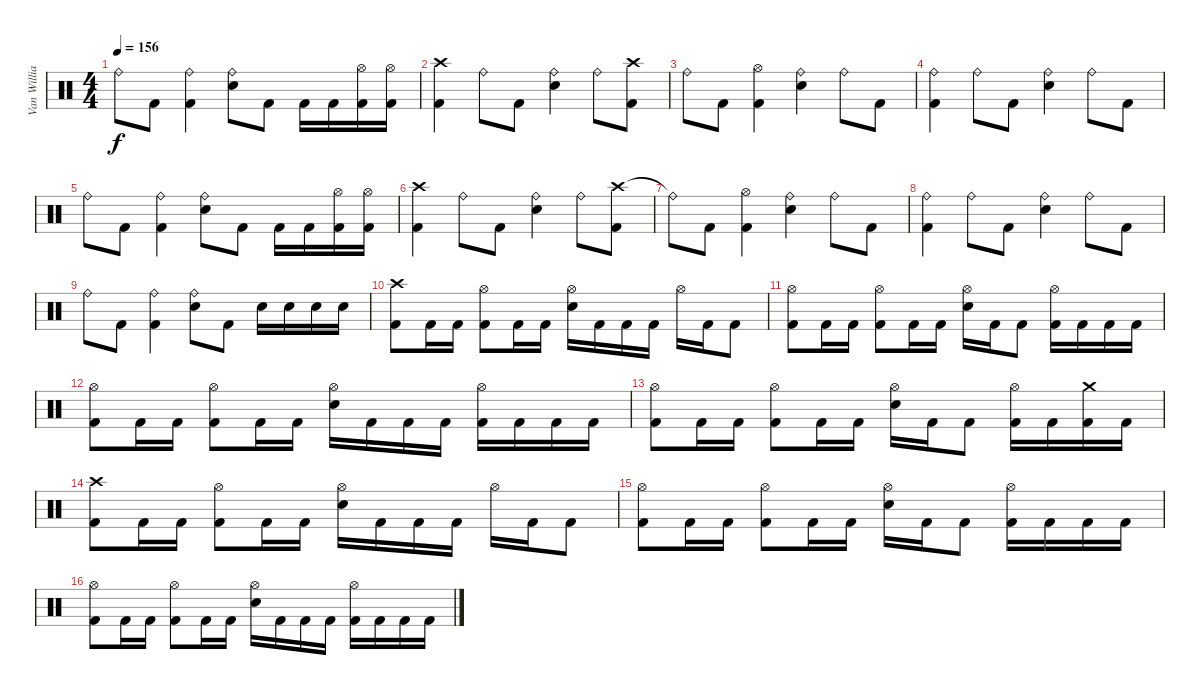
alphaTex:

\track ("Van Williams" "Van Willia") {instrument percussion}
\staff {score}
\articulation defaults
\ts (4 4)
\tempo 156
\clef neutral
\ks c "Ride (bell)".8{dy f} "Kick (hit) 2".8
("Ride (bell)" "Kick (hit) 2").4 ("Ride (bell)" "Electric Snare (hit)").8 "Kick (hit) 2".8 "Kick (hit) 2".16 "Kick (hit) 2".16 ("Hi-Hat (open)" "Kick (hit) 2").16 ("Hi-Hat (open)" "Kick (hit) 2").16 |
("Crash high (hit)" "Kick (hit) 2").4 "Ride (bell)".8 "Kick (hit) 2".8 ("Ride (bell)" "Electric Snare (hit)").4 "Ride (bell)".8 ("Crash high (hit)" "Kick (hit) 2").8 |
"Ride (bell)".8 "Kick (hit) 2".8 ("Hi-Hat (open)" "Kick (hit) 2").4 ("Ride (bell)" "Electric Snare (hit)").4 "Ride (bell)".8 "Kick (hit) 2".8 |
("Ride (bell)" "Kick (hit) 2").4 "Ride (bell)".8 "Kick (hit) 2".8 ("Ride (bell)" "Electric Snare (hit)").4 "Ride (bell)".8 "Kick (hit) 2".8 |
"Ride (bell)".8 "Kick (hit) 2".8 ("Ride (bell)" "Kick (hit) 2").4 ("Ride (bell)" "Electric Snare (hit)").8 "Kick (hit) 2".8 "Kick (hit) 2".16 "Kick (hit) 2".16 ("Hi-Hat (open)" "Kick (hit) 2").16 ("Hi-Hat (open)" "Kick (hit) 2").16 |
("Crash high (hit)" "Kick (hit) 2").4 "Ride (bell)".8 "Kick (hit) 2".8 ("Ride (bell)" "Electric Snare (hit)").4 "Ride (bell)".8 ("Crash high (hit)" "Kick (hit) 2").8 |
"Ride (bell)"{t}.8 "Kick (hit) 2".8 ("Hi-Hat (open)" "Kick (hit) 2").4 ("Ride (bell)" "Electric Snare (hit)").4 "Ride (bell)".8 "Kick (hit) 2".8 |
("Ride (bell)" "Kick (hit) 2").4 "Ride (bell)".8 "Kick (hit) 2".8 ("Ride (bell)" "Electric Snare (hit)").4 "Ride (bell)".8 "Kick (hit) 2".8 |
"Ride (bell)".8 "Kick (hit) 2".8 ("Ride (bell)" "Kick (hit) 2").4 ("Ride (bell)" "Electric Snare (hit)").8 "Kick (hit) 2".8 "Electric Snare (hit)".16 "Electric Snare (hit)".16 "Electric Snare (hit)".16 "Electric Snare (hit)".16 |
\section ("" "")
("Crash high (hit)" "Kick (hit) 2").8 "Kick (hit) 2".16 "Kick (hit) 2".16 ("Hi-Hat (open)" "Kick (hit) 2").8 "Kick (hit) 2".16 "Kick (hit) 2".16 ("Hi-Hat (open)" "Electric Snare (hit)").16 "Kick (hit) 2".16 "Kick (hit) 2".16 "Kick (hit) 2".16 "Hi-Hat (open)".16 "Kick (hit) 2".16 "Kick (hit) 2".8 |
("Hi-Hat (open)" "Kick (hit) 2").8 "Kick (hit) 2".16 "Kick (hit) 2".16 ("Hi-Hat (open)" "Kick (hit) 2").8 "Kick (hit) 2".16 "Kick (hit) 2".16 ("Hi-Hat (open)" "Electric Snare (hit)").16 "Kick (hit) 2".16 "Kick (hit) 2".8 ("Hi-Hat (open)" "Kick (hit) 2").16 "Kick (hit) 2".16 "Kick (hit) 2".16 "Kick (hit) 2".16 |
("Hi-Hat (open)" "Kick (hit) 2").8 "Kick (hit) 2".16 "Kick (hit) 2".16 ("Hi-Hat (open)" "Kick (hit) 2").8 "Kick (hit) 2".16 "Kick (hit) 2".16 ("Hi-Hat (open)" "Electric Snare (hit)").16 "Kick (hit) 2".16 "Kick (hit) 2".16 "Kick (hit) 2".16 ("Hi-Hat (open)" "Kick (hit) 2").16 "Kick (hit) 2".16 "Kick (hit) 2".16 "Kick (hit) 2".16 |
("Hi-Hat (open)" "Kick (hit) 2").8 "Kick (hit) 2".16 "Kick (hit) 2".16 ("Hi-Hat (open)" "Kick (hit) 2").8 "Kick (hit) 2".16 "Kick (hit) 2".16 ("Hi-Hat (open)" "Electric Snare (hit)").16 "Kick (hit) 2".16 "Kick (hit) 2".8 ("Hi-Hat (open)" "Kick (hit) 2").16 "Kick (hit) 2".16 ("Crash medium (hit)" "Kick (hit) 2").16 "Kick (hit) 2".16 |
("Crash high (hit)" "Kick (hit) 2").8 "Kick (hit) 2".16 "Kick (hit) 2".16 ("Hi-Hat (open)" "Kick (hit) 2").8 "Kick (hit) 2".16 "Kick (hit) 2".16 ("Hi-Hat (open)" "Electric Snare (hit)").16 "Kick (hit) 2".16 "Kick (hit) 2".16 "Kick (hit) 2".16 "Hi-Hat (open)".16 "Kick (hit) 2".16 "Kick (hit) 2".8 |
("Hi-Hat (open)" "Kick (hit) 2").8 "Kick (hit) 2".16 "Kick (hit) 2".16 ("Hi-Hat (open)" "Kick (hit) 2").8 "Kick (hit) 2".16 "Kick (hit) 2".16 ("Hi-Hat (open)" "Electric Snare (hit)").16 "Kick (hit) 2".16 "Kick (hit) 2".8 ("Hi-Hat (open)" "Kick (hit) 2").16 "Kick (hit) 2".16 "Kick (hit) 2".16 "Kick (hit) 2".16 |
("Hi-Hat (open)" "Kick (hit) 2").8 "Kick (hit) 2".16 "Kick (hit) 2".16 ("Hi-Hat (open)" "Kick (hit) 2").8 "Kick (hit) 2".16 "Kick (hit) 2".16 ("Hi-Hat (open)" "Electric Snare (hit)").16 "Kick (hit) 2".16 "Kick (hit) 2".16 "Kick (hit) 2".16 ("Hi-Hat (open)" "Kick (hit) 2").16 "Kick (hit) 2".16 "Kick (hit) 2".16 "Kick (hit) 2".16
